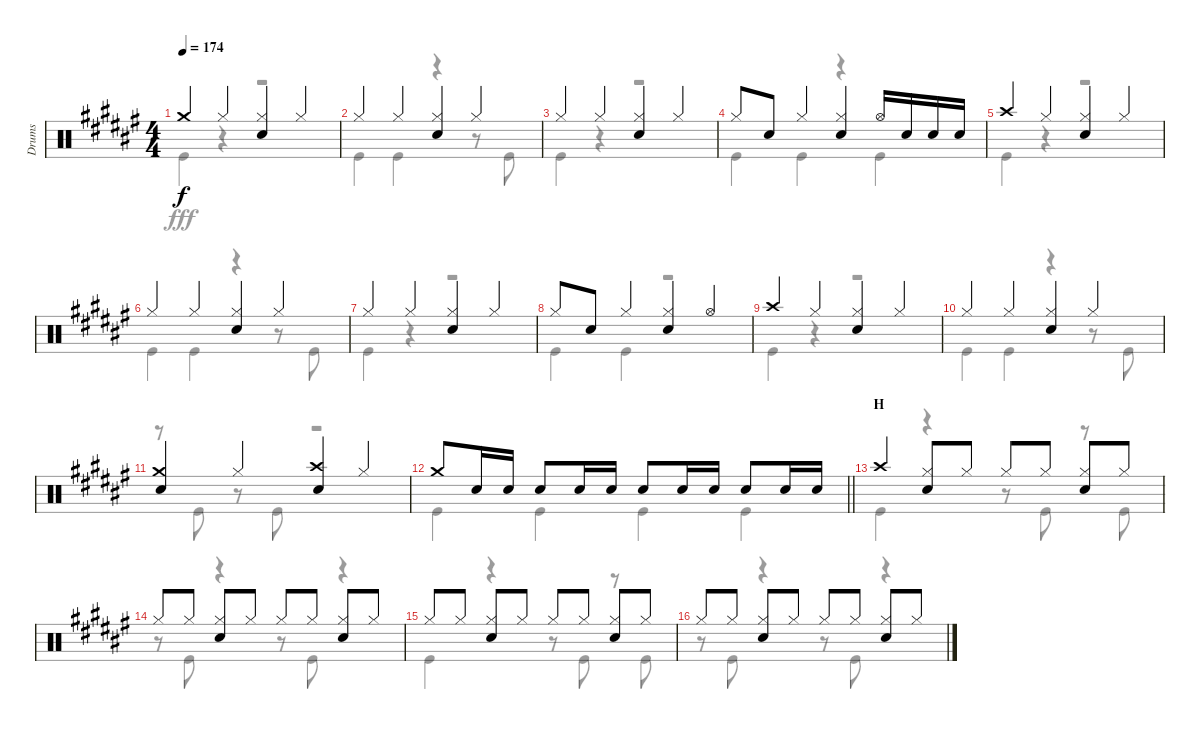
\track ("Drums" "Drums") {instrument percussion}
\staff {score}
\articulation defaults
\voice
\ts (4 4)
\tempo 174
\clef neutral
\ks f# "Crash medium (hit)".4{dy f} "Hi-Hat (closed)".4
("Hi-Hat (closed)" "Snare (hit) 2").4 "Hi-Hat (closed)".4 |
"Hi-Hat (closed)".4 "Hi-Hat (closed)".4 ("Hi-Hat (closed)" "Snare (hit) 2").4 "Hi-Hat (closed)".4 |
"Hi-Hat (closed)".4 "Hi-Hat (closed)".4 ("Hi-Hat (closed)" "Snare (hit) 2").4 "Hi-Hat (closed)".4 |
"Hi-Hat (closed)".8 "Snare (hit) 2".8 "Hi-Hat (closed)".4 ("Hi-Hat (closed)" "Snare (hit) 2").4 "Hi-Hat (open)".16 "Snare (hit) 2".16 "Snare (hit) 2".16 "Snare (hit) 2".16 |
"Crash high (hit)".4 "Hi-Hat (closed)".4 ("Hi-Hat (closed)" "Snare (hit) 2").4 "Hi-Hat (closed)".4 |
"Hi-Hat (closed)".4 "Hi-Hat (closed)".4 ("Hi-Hat (closed)" "Snare (hit) 2").4 "Hi-Hat (closed)".4 |
"Hi-Hat (closed)".4 "Hi-Hat (closed)".4 ("Hi-Hat (closed)" "Snare (hit) 2").4 "Hi-Hat (closed)".4 |
"Hi-Hat (closed)".8 "Snare (hit) 2".8 "Hi-Hat (closed)".4 ("Hi-Hat (closed)" "Snare (hit) 2").4 "Hi-Hat (open)".4 |
"Crash high (hit)".4 "Hi-Hat (closed)".4 ("Hi-Hat (closed)" "Snare (hit) 2").4 "Hi-Hat (closed)".4 |
"Hi-Hat (closed)".4 "Hi-Hat (closed)".4 ("Hi-Hat (closed)" "Snare (hit) 2").4 "Hi-Hat (closed)".4 |
("Crash medium (hit)" "Snare (hit) 2").4 "Hi-Hat (closed)".4 ("Crash high (hit)" "Snare (hit) 2").4 "Hi-Hat (closed)".4 |
\barLineRight lightlight "Crash medium (hit)".8 "Snare (hit) 2".16 "Snare (hit) 2".16 "Snare (hit) 2".8 "Snare (hit) 2".16 "Snare (hit) 2".16 "Snare (hit) 2".8 "Snare (hit) 2".16 "Snare (hit) 2".16 "Snare (hit) 2".8 "Snare (hit) 2".16 "Snare (hit) 2".16
|
\section ("" "H")
"Crash high (hit)".4 ("Hi-Hat (closed)" "Snare (hit) 2").8 "Hi-Hat (closed)".8 "Hi-Hat (closed)".8 "Hi-Hat (closed)".8 ("Hi-Hat (closed)" "Snare (hit) 2").8 "Hi-Hat (closed)".8 |
"Hi-Hat (closed)".8 "Hi-Hat (closed)".8 ("Hi-Hat (closed)" "Snare (hit) 2").8 "Hi-Hat (closed)".8 "Hi-Hat (closed)".8 "Hi-Hat (closed)".8 ("Hi-Hat (closed)" "Snare (hit) 2").8 "Hi-Hat (closed)".8 |
"Hi-Hat (closed)".8 "Hi-Hat (closed)".8 ("Hi-Hat (closed)" "Snare (hit) 2").8 "Hi-Hat (closed)".8 "Hi-Hat (closed)".8 "Hi-Hat (closed)".8 ("Hi-Hat (closed)" "Snare (hit) 2").8 "Hi-Hat (closed)".8 |
"Hi-Hat (closed)".8 "Hi-Hat (closed)".8 ("Hi-Hat (closed)" "Snare (hit) 2").8 "Hi-Hat (closed)".8 "Hi-Hat (closed)".8 "Hi-Hat (closed)".8 ("Hi-Hat (closed)" "Snare (hit) 2").8 "Hi-Hat (closed)".8
\voice
\clef neutral
\ottava regular
\simile none
\ks f# "Kick (hit)".4{dy fff}
r.4 r.2 |
"Kick (hit)".4 "Kick (hit)".4 r.4 r.8 "Kick (hit)".8 |
"Kick (hit)".4 r.4 r.2 |
"Kick (hit)".4 "Kick (hit)".4 r.4 "Kick (hit)".4 |
"Kick (hit)".4 r.4 r.2 |
"Kick (hit)".4 "Kick (hit)".4 r.4 r.8 "Kick (hit)".8 |
"Kick (hit)".4 r.4 r.2 |
"Kick (hit)".4 "Kick (hit)".4 r.2 |
"Kick (hit)".4 r.4 r.2 |
"Kick (hit)".4 "Kick (hit)".4 r.4 r.8 "Kick (hit)".8 |
r.8 "Kick (hit)".8 r.8 "Kick (hit)".8 r.2 |
\barLineRight lightlight "Kick (hit)".4 "Kick (hit)".4 "Kick (hit)".4 "Kick (hit)".4
|
"Kick (hit)".4 r.4 r.8 "Kick (hit)".8 r.8 "Kick (hit)".8 |
r.8 "Kick (hit)".8 r.4 r.8 "Kick (hit)".8 r.4 |
"Kick (hit)".4 r.4 r.8 "Kick (hit)".8 r.8 "Kick (hit)".8 |
r.8 "Kick (hit)".8 r.4 r.8 "Kick (hit)".8 r.4
